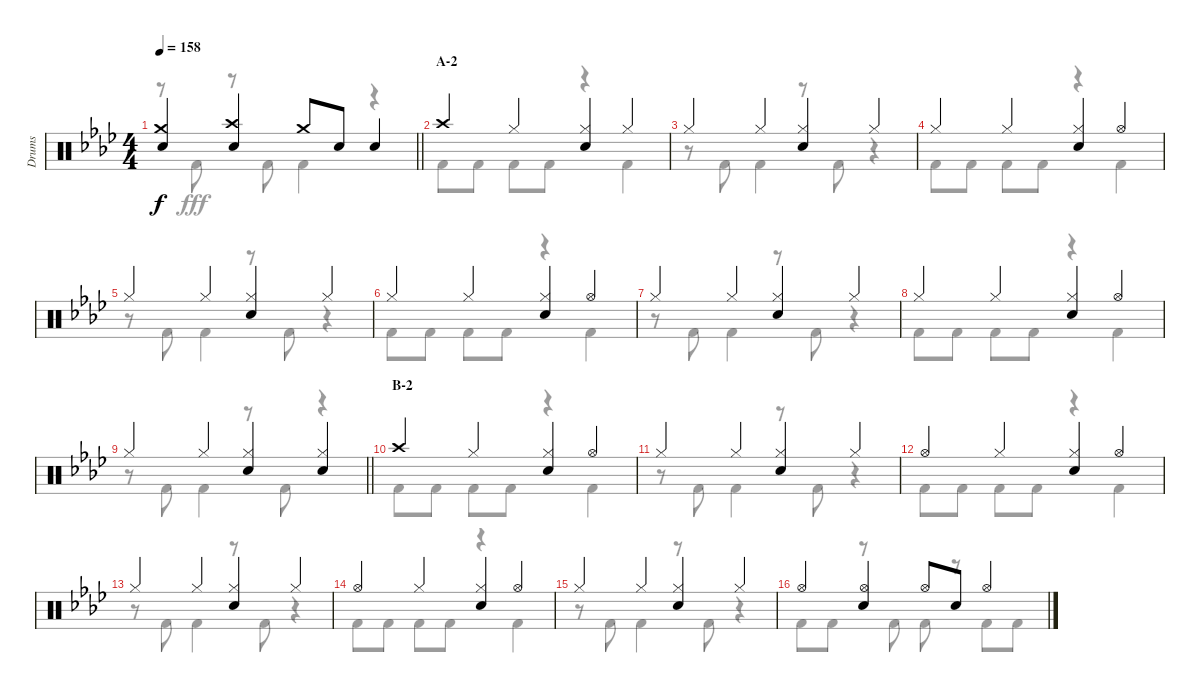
\track ("Drums" "Drums") {instrument percussion}
\staff {score}
\articulation defaults
\voice
\ts (4 4)
\tempo 158
\clef neutral
\barLineRight lightlight
\ks ab
("Crash medium (hit)" "Snare (hit) 2").4{dy f} ("Crash high (hit)" "Snare (hit) 2").4 "Crash medium (hit)".8 "Snare (hit) 2".8 "Snare (hit) 2".4 |
\section ("" "A-2")
"Crash high (hit)".4 "Hi-Hat (closed)".4 ("Hi-Hat (closed)" "Snare (hit) 2").4 "Hi-Hat (closed)".4 |
"Hi-Hat (closed)".4 "Hi-Hat (closed)".4 ("Hi-Hat (closed)" "Snare (hit) 2").4 "Hi-Hat (closed)".4 |
"Hi-Hat (closed)".4 "Hi-Hat (closed)".4 ("Hi-Hat (closed)" "Snare (hit) 2").4 "Hi-Hat (open)".4 |
"Hi-Hat (closed)".4 "Hi-Hat (closed)".4 ("Hi-Hat (closed)" "Snare (hit) 2").4 "Hi-Hat (closed)".4 |
"Hi-Hat (closed)".4 "Hi-Hat (closed)".4 ("Hi-Hat (closed)" "Snare (hit) 2").4 "Hi-Hat (open)".4 |
"Hi-Hat (closed)".4 "Hi-Hat (closed)".4 ("Hi-Hat (closed)" "Snare (hit) 2").4 "Hi-Hat (closed)".4 |
"Hi-Hat (closed)".4 "Hi-Hat (closed)".4 ("Hi-Hat (closed)" "Snare (hit) 2").4 "Hi-Hat (open)".4 |
\barLineRight lightlight "Hi-Hat (closed)".4 "Hi-Hat (closed)".4
("Hi-Hat (closed)" "Snare (hit) 2").4 ("Hi-Hat (closed)" "Snare (hit) 2").4 |
\section ("" "B-2")
"Crash high (hit)".4 "Hi-Hat (closed)".4 ("Hi-Hat (closed)" "Snare (hit) 2").4 "Hi-Hat (open)".4 |
"Hi-Hat (closed)".4 "Hi-Hat (closed)".4 ("Hi-Hat (closed)" "Snare (hit) 2").4 "Hi-Hat (closed)".4 |
"Hi-Hat (open)".4 "Hi-Hat (closed)".4 ("Hi-Hat (closed)" "Snare (hit) 2").4 "Hi-Hat (open)".4 |
"Hi-Hat (closed)".4 "Hi-Hat (closed)".4 ("Hi-Hat (closed)" "Snare (hit) 2").4 "Hi-Hat (closed)".4 |
"Hi-Hat (open)".4 "Hi-Hat (closed)".4 ("Hi-Hat (closed)" "Snare (hit) 2").4 "Hi-Hat (open)".4 |
"Hi-Hat (closed)".4 "Hi-Hat (closed)".4 ("Hi-Hat (closed)" "Snare (hit) 2").4 "Hi-Hat (closed)".4 |
"Hi-Hat (open)".4 ("Hi-Hat (open)" "Snare (hit) 2").4 "Hi-Hat (open)".8 "Snare (hit) 2".8 "Hi-Hat (open)".4
\voice
\clef neutral
\ottava regular
\simile none
\barLineRight lightlight
\ks ab
r.8{dy fff} "Kick (hit) 2".8 r.8 "Kick (hit) 2".8 "Kick (hit) 2".4 r.4 |
"Kick (hit) 2".8 "Kick (hit) 2".8 "Kick (hit) 2".8 "Kick (hit) 2".8 r.4 "Kick (hit) 2".4 |
r.8 "Kick (hit) 2".8 "Kick (hit) 2".4 r.8 "Kick (hit) 2".8 r.4 |
"Kick (hit) 2".8 "Kick (hit) 2".8 "Kick (hit) 2".8 "Kick (hit) 2".8 r.4 "Kick (hit) 2".4 |
r.8 "Kick (hit) 2".8 "Kick (hit) 2".4 r.8 "Kick (hit) 2".8 r.4 |
"Kick (hit) 2".8 "Kick (hit) 2".8 "Kick (hit) 2".8 "Kick (hit) 2".8 r.4 "Kick (hit) 2".4 |
r.8 "Kick (hit) 2".8 "Kick (hit) 2".4 r.8 "Kick (hit) 2".8 r.4 |
"Kick (hit) 2".8 "Kick (hit) 2".8 "Kick (hit) 2".8 "Kick (hit) 2".8 r.4 "Kick (hit) 2".4 |
\barLineRight lightlight
r.8 "Kick (hit) 2".8 "Kick (hit) 2".4 r.8 "Kick (hit) 2".8 r.4 |
"Kick (hit) 2".8 "Kick (hit) 2".8 "Kick (hit) 2".8 "Kick (hit) 2".8 r.4 "Kick (hit) 2".4 |
r.8 "Kick (hit) 2".8 "Kick (hit) 2".4 r.8 "Kick (hit) 2".8 r.4 |
"Kick (hit) 2".8 "Kick (hit) 2".8 "Kick (hit) 2".8 "Kick (hit) 2".8 r.4 "Kick (hit) 2".4 |
r.8 "Kick (hit) 2".8 "Kick (hit) 2".4 r.8 "Kick (hit) 2".8 r.4 |
"Kick (hit) 2".8 "Kick (hit) 2".8 "Kick (hit) 2".8 "Kick (hit) 2".8 r.4 "Kick (hit) 2".4 |
r.8 "Kick (hit) 2".8 "Kick (hit) 2".4 r.8 "Kick (hit) 2".8 r.4 |
"Kick (hit) 2".8 "Kick (hit) 2".8 r.8 "Kick (hit) 2".8 "Kick (hit) 2".8 r.8 "Kick (hit) 2".8 "Kick (hit) 2".8
